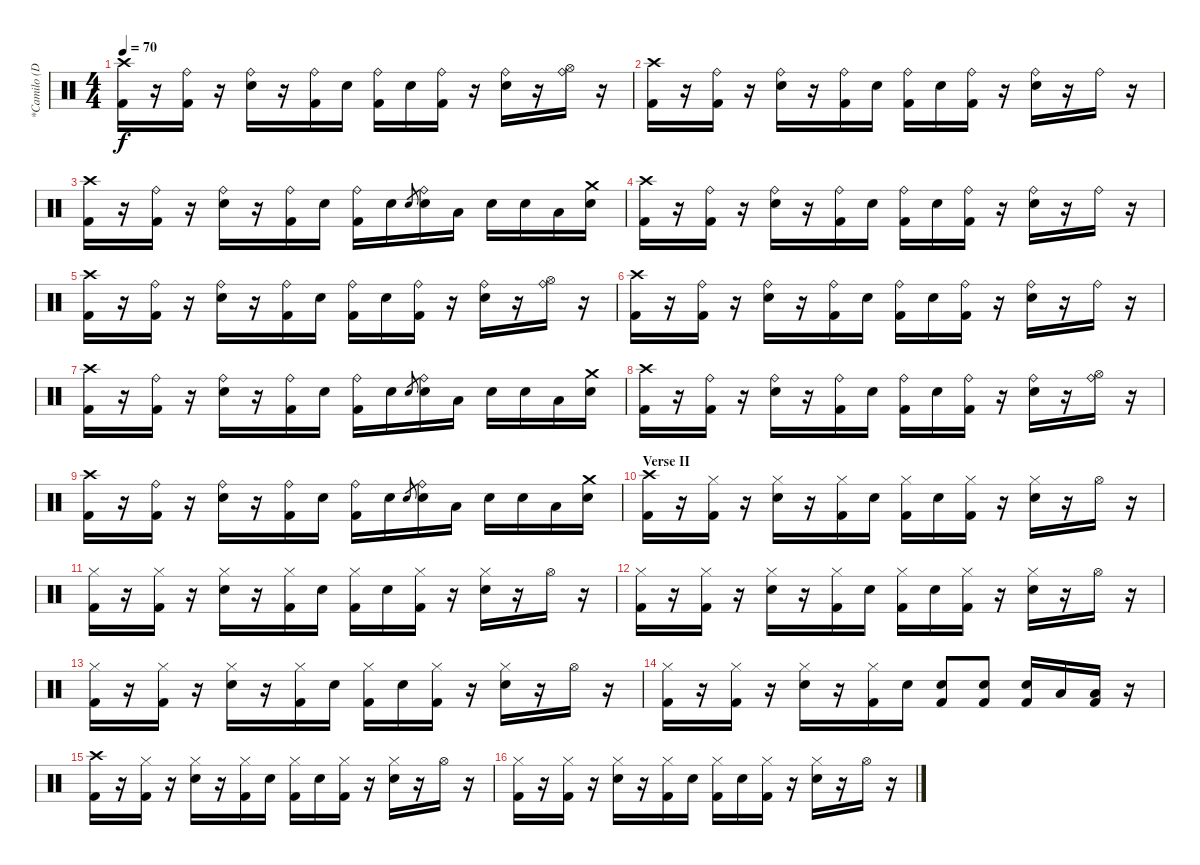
\track ("*Camilo (Drums)" "*Camilo (D") {instrument percussion}
\staff {score}
\articulation defaults
\ts (4 4)
\tempo 70
\clef neutral
\ks c
("Crash high (hit)" "Kick (hit) 2").16{dy f} r.16 ("Ride (bell)" "Kick (hit) 2").16 r.16 ("Ride (bell)" "Electric Snare (hit)").16 r.16 ("Ride (bell)" "Kick (hit) 2").16 "Electric Snare (hit)".16 ("Ride (bell)" "Kick (hit) 2").16 "Electric Snare (hit)".16 ("Ride (bell)" "Kick (hit) 2").16 r.16 ("Ride (bell)" "Electric Snare (hit)").16 r.16 ("Ride (bell)" "Hi-Hat (open)").16 r.16 |
("Crash high (hit)" "Kick (hit) 2").16 r.16 ("Ride (bell)" "Kick (hit) 2").16 r.16 ("Ride (bell)" "Electric Snare (hit)").16 r.16 ("Ride (bell)" "Kick (hit) 2").16 "Electric Snare (hit)".16 ("Ride (bell)" "Kick (hit) 2").16 "Electric Snare (hit)".16 ("Ride (bell)" "Kick (hit) 2").16 r.16 ("Ride (bell)" "Electric Snare (hit)").16 r.16 "Ride (bell)".16 r.16 |
("Crash high (hit)" "Kick (hit) 2").16 r.16 ("Ride (bell)" "Kick (hit) 2").16 r.16 ("Ride (bell)" "Electric Snare (hit)").16 r.16 ("Ride (bell)" "Kick (hit) 2").16 "Electric Snare (hit)".16 ("Ride (bell)" "Kick (hit) 2").16 "Electric Snare (hit)".16 "Electric Snare (hit)".8{gr} ("Ride (bell)" "Electric Snare (hit)").16 "Low Tom (hit)".16 "Electric Snare (hit)".16 "Electric Snare (hit)".16 "Low Tom (hit)".16 ("Crash medium (hit)" "Electric Snare (hit)").16 |
("Crash high (hit)" "Kick (hit) 2").16 r.16 ("Ride (bell)" "Kick (hit) 2").16 r.16 ("Ride (bell)" "Electric Snare (hit)").16 r.16 ("Ride (bell)" "Kick (hit) 2").16 "Electric Snare (hit)".16 ("Ride (bell)" "Kick (hit) 2").16 "Electric Snare (hit)".16 ("Ride (bell)" "Kick (hit) 2").16 r.16 ("Ride (bell)" "Electric Snare (hit)").16 r.16 "Ride (bell)".16 r.16 |
("Crash high (hit)" "Kick (hit) 2").16 r.16 ("Ride (bell)" "Kick (hit) 2").16 r.16 ("Ride (bell)" "Electric Snare (hit)").16 r.16 ("Ride (bell)" "Kick (hit) 2").16 "Electric Snare (hit)".16 ("Ride (bell)" "Kick (hit) 2").16 "Electric Snare (hit)".16 ("Ride (bell)" "Kick (hit) 2").16 r.16 ("Ride (bell)" "Electric Snare (hit)").16 r.16 ("Ride (bell)" "Hi-Hat (open)").16 r.16 |
("Crash high (hit)" "Kick (hit) 2").16 r.16 ("Ride (bell)" "Kick (hit) 2").16 r.16 ("Ride (bell)" "Electric Snare (hit)").16 r.16 ("Ride (bell)" "Kick (hit) 2").16 "Electric Snare (hit)".16 ("Ride (bell)" "Kick (hit) 2").16 "Electric Snare (hit)".16 ("Ride (bell)" "Kick (hit) 2").16 r.16 ("Ride (bell)" "Electric Snare (hit)").16 r.16 "Ride (bell)".16 r.16 |
("Crash high (hit)" "Kick (hit) 2").16 r.16 ("Ride (bell)" "Kick (hit) 2").16 r.16 ("Ride (bell)" "Electric Snare (hit)").16 r.16 ("Ride (bell)" "Kick (hit) 2").16 "Electric Snare (hit)".16 ("Ride (bell)" "Kick (hit) 2").16 "Electric Snare (hit)".16 "Electric Snare (hit)".8{gr} ("Ride (bell)" "Electric Snare (hit)").16 "Low Tom (hit)".16 "Electric Snare (hit)".16 "Electric Snare (hit)".16 "Low Tom (hit)".16 ("Crash medium (hit)" "Electric Snare (hit)").16 |
("Crash high (hit)" "Kick (hit) 2").16 r.16 ("Ride (bell)" "Kick (hit) 2").16 r.16 ("Ride (bell)" "Electric Snare (hit)").16 r.16 ("Ride (bell)" "Kick (hit) 2").16 "Electric Snare (hit)".16 ("Ride (bell)" "Kick (hit) 2").16 "Electric Snare (hit)".16 ("Ride (bell)" "Kick (hit) 2").16 r.16 ("Ride (bell)" "Electric Snare (hit)").16 r.16 ("Ride (bell)" "Hi-Hat (open)").16 r.16 |
("Crash high (hit)" "Kick (hit) 2").16 r.16 ("Ride (bell)" "Kick (hit) 2").16 r.16 ("Ride (bell)" "Electric Snare (hit)").16 r.16 ("Ride (bell)" "Kick (hit) 2").16 "Electric Snare (hit)".16 ("Ride (bell)" "Kick (hit) 2").16 "Electric Snare (hit)".16 "Electric Snare (hit)".8{gr} ("Ride (bell)" "Electric Snare (hit)").16 "Low Tom (hit)".16 "Electric Snare (hit)".16 "Electric Snare (hit)".16 "Low Tom (hit)".16 ("Crash medium (hit)" "Electric Snare (hit)").16 |
\section ("" "Verse II")
("Crash high (hit)" "Kick (hit) 2").16 r.16 ("Hi-Hat (closed)" "Kick (hit) 2").16 r.16 ("Hi-Hat (closed)" "Electric Snare (hit)").16 r.16 ("Hi-Hat (closed)" "Kick (hit) 2").16 "Electric Snare (hit)".16 ("Hi-Hat (closed)" "Kick (hit) 2").16 "Electric Snare (hit)".16 ("Hi-Hat (closed)" "Kick (hit) 2").16 r.16 ("Hi-Hat (closed)" "Electric Snare (hit)").16 r.16 "Hi-Hat (open)".16 r.16 |
("Hi-Hat (closed)" "Kick (hit) 2").16 r.16 ("Hi-Hat (closed)" "Kick (hit) 2").16 r.16 ("Hi-Hat (closed)" "Electric Snare (hit)").16 r.16 ("Hi-Hat (closed)" "Kick (hit) 2").16 "Electric Snare (hit)".16 ("Hi-Hat (closed)" "Kick (hit) 2").16 "Electric Snare (hit)".16 ("Hi-Hat (closed)" "Kick (hit) 2").16 r.16 ("Hi-Hat (closed)" "Electric Snare (hit)").16 r.16 "Hi-Hat (open)".16 r.16 |
("Hi-Hat (closed)" "Kick (hit) 2").16 r.16 ("Hi-Hat (closed)" "Kick (hit) 2").16 r.16 ("Hi-Hat (closed)" "Electric Snare (hit)").16 r.16 ("Hi-Hat (closed)" "Kick (hit) 2").16 "Electric Snare (hit)".16 ("Hi-Hat (closed)" "Kick (hit) 2").16 "Electric Snare (hit)".16 ("Hi-Hat (closed)" "Kick (hit) 2").16 r.16 ("Hi-Hat (closed)" "Electric Snare (hit)").16 r.16 "Hi-Hat (open)".16 r.16 |
("Hi-Hat (closed)" "Kick (hit) 2").16 r.16 ("Hi-Hat (closed)" "Kick (hit) 2").16 r.16 ("Hi-Hat (closed)" "Electric Snare (hit)").16 r.16 ("Hi-Hat (closed)" "Kick (hit) 2").16 "Electric Snare (hit)".16 ("Hi-Hat (closed)" "Kick (hit) 2").16 "Electric Snare (hit)".16 ("Hi-Hat (closed)" "Kick (hit) 2").16 r.16 ("Hi-Hat (closed)" "Electric Snare (hit)").16 r.16 "Hi-Hat (open)".16 r.16 |
("Hi-Hat (closed)" "Kick (hit) 2").16 r.16 ("Hi-Hat (closed)" "Kick (hit) 2").16 r.16 ("Hi-Hat (closed)" "Electric Snare (hit)").16 r.16 ("Hi-Hat (closed)" "Kick (hit) 2").16 "Electric Snare (hit)".16 ("Electric Snare (hit)" "Kick (hit) 2").8 ("Electric Snare (hit)" "Kick (hit) 2").8 ("Electric Snare (hit)" "Kick (hit) 2").16 "Low Tom (hit)".16 ("Low Floor Tom (hit)" "Kick (hit) 2").16 r.16 |
("Crash high (hit)" "Kick (hit) 2").16 r.16 ("Hi-Hat (closed)" "Kick (hit) 2").16 r.16 ("Hi-Hat (closed)" "Electric Snare (hit)").16 r.16 ("Hi-Hat (closed)" "Kick (hit) 2").16 "Electric Snare (hit)".16 ("Hi-Hat (closed)" "Kick (hit) 2").16 "Electric Snare (hit)".16 ("Hi-Hat (closed)" "Kick (hit) 2").16 r.16 ("Hi-Hat (closed)" "Electric Snare (hit)").16 r.16 "Hi-Hat (open)".16 r.16 |
("Hi-Hat (closed)" "Kick (hit) 2").16 r.16 ("Hi-Hat (closed)" "Kick (hit) 2").16 r.16 ("Hi-Hat (closed)" "Electric Snare (hit)").16 r.16 ("Hi-Hat (closed)" "Kick (hit) 2").16 "Electric Snare (hit)".16 ("Hi-Hat (closed)" "Kick (hit) 2").16 "Electric Snare (hit)".16 ("Hi-Hat (closed)" "Kick (hit) 2").16 r.16 ("Hi-Hat (closed)" "Electric Snare (hit)").16 r.16 "Hi-Hat (open)".16 r.16
